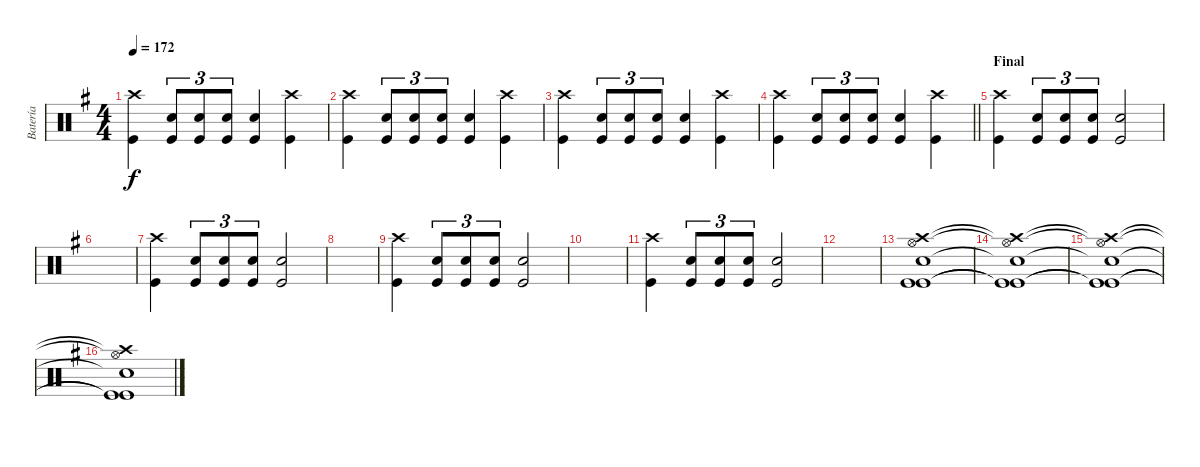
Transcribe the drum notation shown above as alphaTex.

\track ("Batería" "Batería") {instrument percussion}
\staff {score}
\articulation defaults
\ts (4 4)
\tempo 172
\clef neutral
\ks eminor
("Kick (hit)" "Crash high (hit)").4{dy f} ("Kick (hit)" "Electric Snare (hit)").8{tu (3 2)} ("Kick (hit)" "Electric Snare (hit)").8{tu (3 2)} ("Kick (hit)" "Electric Snare (hit)").8{tu (3 2)} ("Kick (hit)" "Electric Snare (hit)").4 ("Kick (hit)" "Crash high (hit)").4 |
("Kick (hit)" "Crash high (hit)").4 ("Kick (hit)" "Electric Snare (hit)").8{tu (3 2)} ("Kick (hit)" "Electric Snare (hit)").8{tu (3 2)} ("Kick (hit)" "Electric Snare (hit)").8{tu (3 2)} ("Kick (hit)" "Electric Snare (hit)").4 ("Kick (hit)" "Crash high (hit)").4 |
("Kick (hit)" "Crash high (hit)").4 ("Kick (hit)" "Electric Snare (hit)").8{tu (3 2)} ("Kick (hit)" "Electric Snare (hit)").8{tu (3 2)} ("Kick (hit)" "Electric Snare (hit)").8{tu (3 2)} ("Kick (hit)" "Electric Snare (hit)").4 ("Kick (hit)" "Crash high (hit)").4 |
\barLineRight lightlight
("Kick (hit)" "Crash high (hit)").4 ("Kick (hit)" "Electric Snare (hit)").8{tu (3 2)} ("Kick (hit)" "Electric Snare (hit)").8{tu (3 2)} ("Kick (hit)" "Electric Snare (hit)").8{tu (3 2)} ("Kick (hit)" "Electric Snare (hit)").4 ("Kick (hit)" "Crash high (hit)").4 |
\section ("" "Final")
("Kick (hit)" "Crash high (hit)").4{volume 16} ("Kick (hit)" "Electric Snare (hit)").8{tu (3 2)} ("Kick (hit)" "Electric Snare (hit)").8{tu (3 2)} ("Kick (hit)" "Electric Snare (hit)").8{tu (3 2)} ("Kick (hit)" "Electric Snare (hit)").2 |
|
("Kick (hit)" "Crash high (hit)").4 ("Kick (hit)" "Electric Snare (hit)").8{tu (3 2)} ("Kick (hit)" "Electric Snare (hit)").8{tu (3 2)} ("Kick (hit)" "Electric Snare (hit)").8{tu (3 2)} ("Kick (hit)" "Electric Snare (hit)").2 |
|
("Kick (hit)" "Crash high (hit)").4 ("Kick (hit)" "Electric Snare (hit)").8{tu (3 2)} ("Kick (hit)" "Electric Snare (hit)").8{tu (3 2)} ("Kick (hit)" "Electric Snare (hit)").8{tu (3 2)} ("Kick (hit)" "Electric Snare (hit)").2 |
|
("Kick (hit)" "Crash high (hit)").4 ("Kick (hit)" "Electric Snare (hit)").8{tu (3 2)} ("Kick (hit)" "Electric Snare (hit)").8{tu (3 2)} ("Kick (hit)" "Electric Snare (hit)").8{tu (3 2)} ("Kick (hit)" "Electric Snare (hit)").2 |
|
("Kick (hit)" "Kick (hit)" "Electric Snare (hit)" "Hi-Hat (open)" "Crash high (hit)").1 |
("Kick (hit)"{t} "Kick (hit)"{t} "Electric Snare (hit)"{t} "Hi-Hat (open)"{t} "Crash high (hit)"{t}).1 |
("Kick (hit)"{t} "Kick (hit)"{t} "Electric Snare (hit)"{t} "Hi-Hat (open)"{t} "Crash high (hit)"{t}).1 |
("Kick (hit)"{t} "Kick (hit)"{t} "Electric Snare (hit)"{t} "Hi-Hat (open)"{t} "Crash high (hit)"{t}).1
